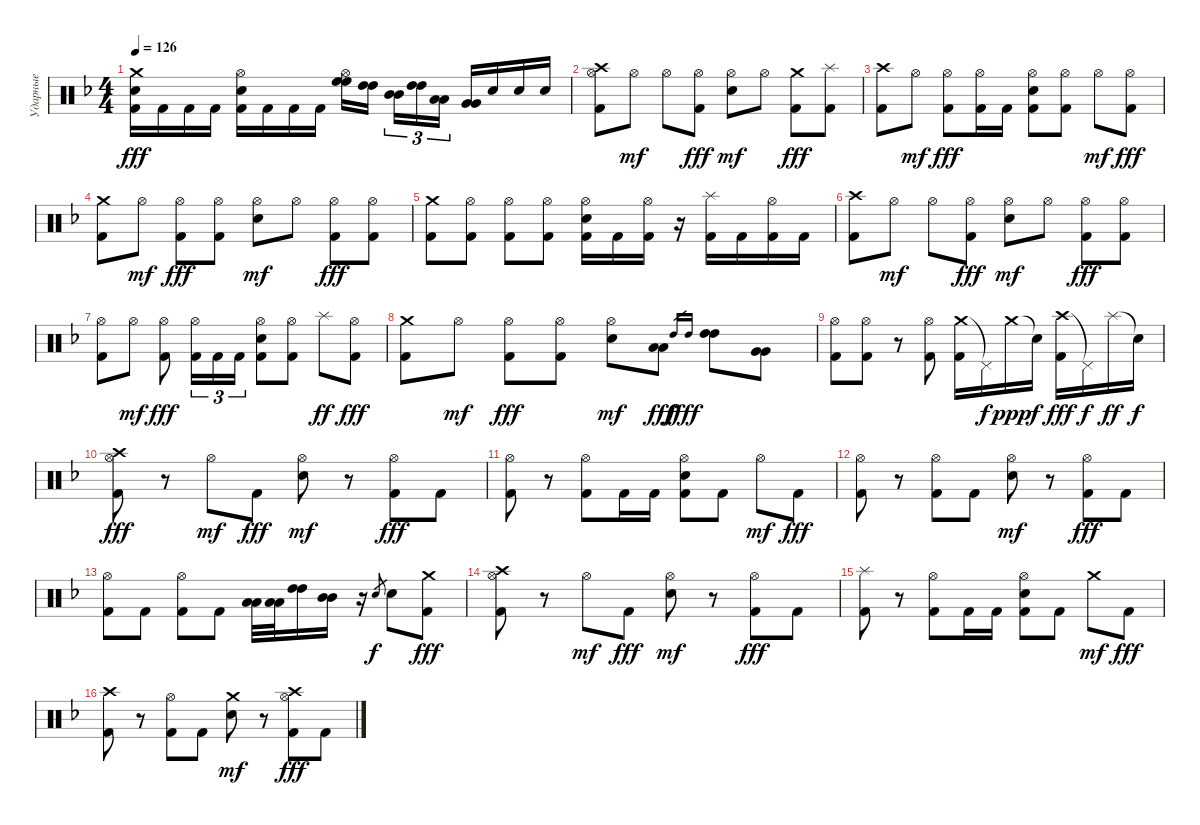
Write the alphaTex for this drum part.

\track ("Ударные" "Ударные") {instrument percussion}
\staff {score}
\articulation defaults
\ts (4 4)
\tempo 126
\clef neutral
\ks f
("Crash medium (hit)" "Electric Snare (hit)" "Kick (hit) 2").16{dy fff} "Kick (hit) 2".16 "Kick (hit) 2".16 "Kick (hit) 2".16 ("Hi-Hat (open)" "Electric Snare (hit)" "Kick (hit) 2").16 "Kick (hit) 2".16 "Kick (hit) 2".16 "Kick (hit) 2".16 ("Hi-Hat (open)" "High Floor Tom (hit)" "High Floor Tom (hit)").16 ("High Tom (hit)" "High Tom (hit)").16 ("Mid Tom (hit)" "Mid Tom (hit)").16{tu (3 2)} ("High Tom (hit)" "High Tom (hit)").16{tu (3 2)} ("Low Tom (hit)" "Low Tom (hit)").16{tu (3 2)} ("Very Low Tom (hit)" "Very Low Tom (hit)").16 "Electric Snare (hit)".16 "Electric Snare (hit)".16 "Electric Snare (hit)".16 |
("Crash high (hit)" "Hi-Hat (open)" "Kick (hit) 2").8 "Hi-Hat (open)".8{dy mf} "Hi-Hat (open)".8 ("Hi-Hat (open)" "Kick (hit) 2").8{dy fff} ("Electric Snare (hit)" "Hi-Hat (open)").8{dy mf} "Hi-Hat (open)".8 ("Crash medium (hit)" "Kick (hit) 2").8{dy fff} ("Splash (hit)" "Kick (hit) 2").8 |
("Crash high (hit)" "Kick (hit) 2").8 "Hi-Hat (open)".8{dy mf} ("Hi-Hat (open)" "Kick (hit) 2").8{dy fff} ("Hi-Hat (open)" "Kick (hit) 2").16 "Kick (hit) 2".16 ("Electric Snare (hit)" "Hi-Hat (open)" "Kick (hit) 2").8 ("Hi-Hat (open)" "Kick (hit) 2").8 "Hi-Hat (open)".8{dy mf} ("Hi-Hat (open)" "Kick (hit) 2").8{dy fff} |
("Crash medium (hit)" "Kick (hit) 2").8 "Hi-Hat (open)".8{dy mf} ("Hi-Hat (open)" "Kick (hit) 2").8{dy fff} ("Hi-Hat (open)" "Kick (hit) 2").8 ("Electric Snare (hit)" "Hi-Hat (open)").8{dy mf} "Hi-Hat (open)".8 ("Hi-Hat (open)" "Kick (hit) 2").8{dy fff} ("Hi-Hat (open)" "Kick (hit) 2").8 |
("Crash medium (hit)" "Kick (hit) 2").8 ("Hi-Hat (open)" "Kick (hit) 2").8 ("Hi-Hat (open)" "Kick (hit) 2").8 ("Hi-Hat (open)" "Kick (hit) 2").8 ("Electric Snare (hit)" "Hi-Hat (open)" "Kick (hit) 2").16 "Kick (hit) 2".16 ("Hi-Hat (open)" "Kick (hit) 2").16 r.16 ("Splash (hit)" "Kick (hit) 2").16 "Kick (hit) 2".16 ("Hi-Hat (open)" "Kick (hit) 2").16 "Kick (hit) 2".16 |
("Crash high (hit)" "Kick (hit) 2").8 "Hi-Hat (open)".8{dy mf} "Hi-Hat (open)".8 ("Hi-Hat (open)" "Kick (hit) 2").8{dy fff} ("Electric Snare (hit)" "Hi-Hat (open)").8{dy mf} "Hi-Hat (open)".8 ("Hi-Hat (open)" "Kick (hit) 2").8{dy fff} ("Hi-Hat (open)" "Kick (hit) 2").8 |
("Hi-Hat (open)" "Kick (hit) 2").8 "Hi-Hat (open)".8{dy mf} ("Hi-Hat (open)" "Kick (hit) 2").8{dy fff} ("Hi-Hat (open)" "Kick (hit) 2").16{tu (3 2)} "Kick (hit) 2".16{tu (3 2)} "Kick (hit) 2".16{tu (3 2)} ("Electric Snare (hit)" "Hi-Hat (open)" "Kick (hit) 2").8 ("Hi-Hat (open)" "Kick (hit) 2").8 "Splash (hit)".8{dy ff} ("Hi-Hat (open)" "Kick (hit) 2").8{dy fff} |
("Crash medium (hit)" "Kick (hit) 2").8 "Hi-Hat (open)".8{dy mf} ("Hi-Hat (open)" "Kick (hit) 2").8{dy fff} ("Hi-Hat (open)" "Kick (hit) 2").8 ("Electric Snare (hit)" "Hi-Hat (open)").8{dy mf} ("Low Tom (hit)" "Low Tom (hit)").8{dy fff} "High Tom (hit)".16{gr dy f} "High Tom (hit)".16{gr dy fff} ("High Tom (hit)" "High Tom (hit)").8 ("Very Low Tom (hit)" "Very Low Tom (hit)").8 |
("Hi-Hat (open)" "Kick (hit) 2").8 ("Hi-Hat (open)" "Kick (hit) 2").8 r.8 ("Hi-Hat (open)" "Kick (hit) 2").8 ("Crash medium (hit)" "Kick (hit) 2").16 "Pedal Hi-Hat (hit)"{t}.16{dy f} "Crash medium (hit)".16{dy ppp} "Snare (hit)"{t}.16{dy f} ("Crash high (hit)" "Kick (hit) 2").16{dy fff} "Pedal Hi-Hat (hit)"{t}.16{dy f} "Splash (hit)".16{dy ff} "Snare (hit)"{t}.16{dy f} |
("Crash high (hit)" "Hi-Hat (open)" "Kick (hit) 2").8{dy fff} r.8 "Hi-Hat (open)".8{dy mf} "Kick (hit) 2".8{dy fff} ("Electric Snare (hit)" "Hi-Hat (open)").8{dy mf} r.8 ("Hi-Hat (open)" "Kick (hit) 2").8{dy fff} "Kick (hit) 2".8 |
("Hi-Hat (open)" "Kick (hit) 2").8 r.8 ("Hi-Hat (open)" "Kick (hit) 2").8 "Kick (hit) 2".16 "Kick (hit) 2".16 ("Electric Snare (hit)" "Hi-Hat (open)" "Kick (hit) 2").8 "Kick (hit) 2".8 "Hi-Hat (open)".8{dy mf} "Kick (hit) 2".8{dy fff} |
("Hi-Hat (open)" "Kick (hit) 2").8 r.8 ("Hi-Hat (open)" "Kick (hit) 2").8 "Kick (hit) 2".8 ("Electric Snare (hit)" "Hi-Hat (open)").8{dy mf} r.8 ("Hi-Hat (open)" "Kick (hit) 2").8{dy fff} "Kick (hit) 2".8 |
("Hi-Hat (open)" "Kick (hit) 2").8 "Kick (hit) 2".8 ("Hi-Hat (open)" "Kick (hit) 2").8 "Kick (hit) 2".8 ("Low Tom (hit)" "Low Tom (hit)").32 ("Low Tom (hit)" "Low Tom (hit)").32 ("High Tom (hit)" "High Tom (hit)").16 ("Mid Tom (hit)" "Mid Tom (hit)").16 r.16 "Electric Snare (hit)".8{gr dy f} "Electric Snare (hit)".8 ("Crash medium (hit)" "Kick (hit) 2").8{dy fff} |
("Crash high (hit)" "Hi-Hat (open)" "Kick (hit) 2").8 r.8 "Hi-Hat (open)".8{dy mf} "Kick (hit) 2".8{dy fff} ("Electric Snare (hit)" "Hi-Hat (open)").8{dy mf} r.8 ("Hi-Hat (open)" "Kick (hit) 2").8{dy fff} "Kick (hit) 2".8 |
("Splash (hit)" "Kick (hit) 2").8 r.8 ("Hi-Hat (open)" "Kick (hit) 2").8 "Kick (hit) 2".16 "Kick (hit) 2".16 ("Electric Snare (hit)" "Hi-Hat (open)" "Kick (hit) 2").8 "Kick (hit) 2".8 "Crash medium (hit)".8{dy mf} "Kick (hit) 2".8{dy fff} |
("Crash high (hit)" "Kick (hit) 2").8 r.8 ("Hi-Hat (open)" "Kick (hit) 2").8 "Kick (hit) 2".8 ("Crash medium (hit)" "Electric Snare (hit)").8{dy mf} r.8 ("Crash high (hit)" "Hi-Hat (open)" "Kick (hit) 2").8{dy fff} "Kick (hit) 2".8
